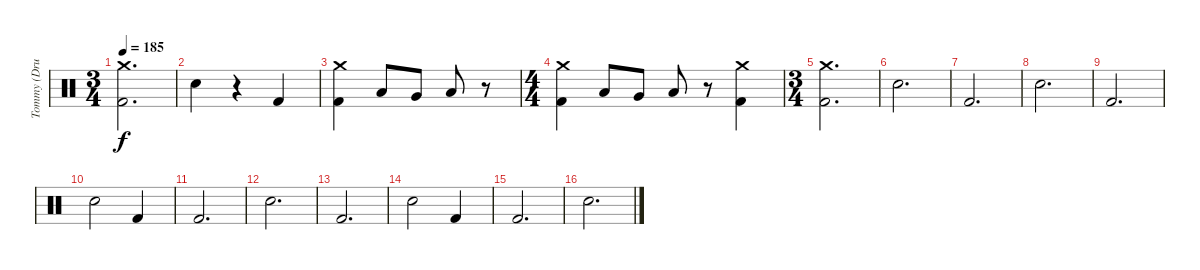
\track ("Tommy (Drums)" "Tommy (Dru") {instrument percussion}
\staff {score}
\articulation defaults
\ts (3 4)
\tempo 185
\clef neutral
\ks c
("Crash medium (hit)" "Kick (hit) 2").2{d dy f} |
"Electric Snare (hit)".4 r.4 "Kick (hit) 2".4 |
("Crash medium (hit)" "Kick (hit) 2").4 "Low Tom (hit)".8 "Very Low Tom (hit)".8 "Low Floor Tom (hit)".8 r.8 |
\ts (4 4)
("Crash medium (hit)" "Kick (hit) 2").4 "Low Tom (hit)".8 "Very Low Tom (hit)".8 "Low Floor Tom (hit)".8 r.8 ("Crash medium (hit)" "Kick (hit) 2").4 |
\ts (3 4)
("Crash medium (hit)" "Kick (hit) 2").2{d} |
"Electric Snare (hit)".2{d} |
"Kick (hit) 2".2{d} |
"Electric Snare (hit)".2{d} |
"Kick (hit) 2".2{d} |
"Electric Snare (hit)".2 "Kick (hit) 2".4 |
"Kick (hit) 2".2{d} |
"Electric Snare (hit)".2{d} |
"Kick (hit) 2".2{d} |
"Electric Snare (hit)".2 "Kick (hit) 2".4 |
"Kick (hit) 2".2{d} |
"Electric Snare (hit)".2{d}
